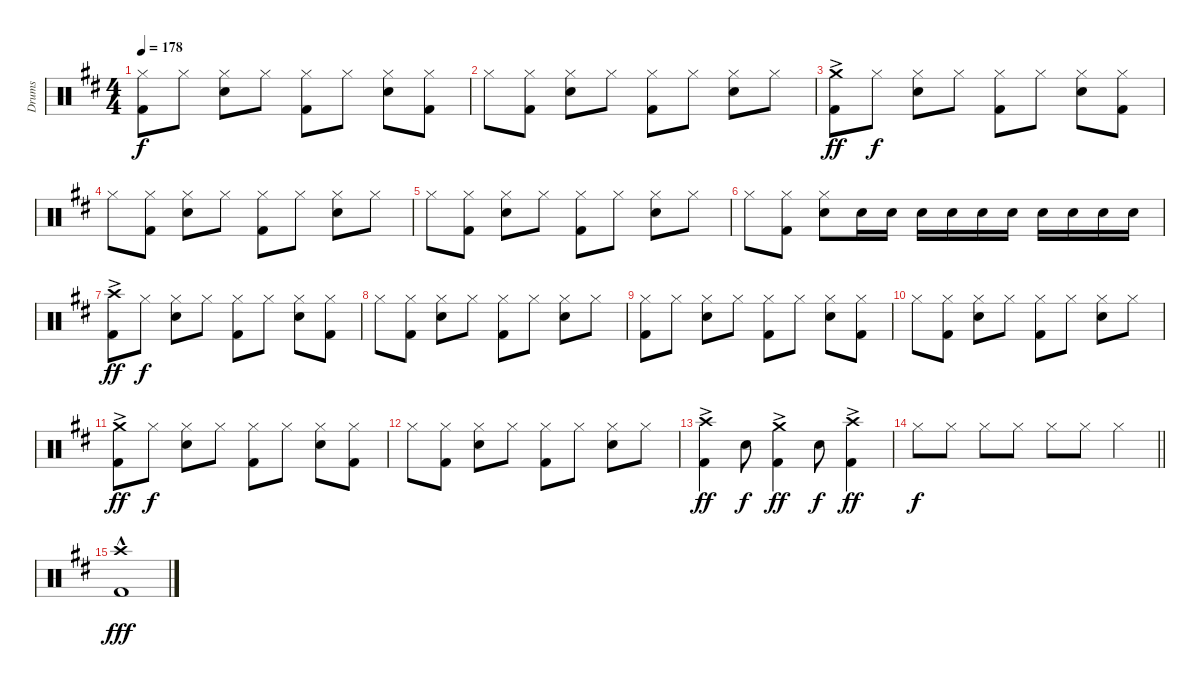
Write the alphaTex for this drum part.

\track ("Drums" "Drums") {instrument percussion}
\staff {score}
\articulation defaults
\ts (4 4)
\tempo 178
\clef neutral
\ks d
("Hi-Hat (closed)" "Kick (hit) 2").8{dy f} "Hi-Hat (closed)".8 ("Hi-Hat (closed)" "Electric Snare (hit)").8 "Hi-Hat (closed)".8 ("Hi-Hat (closed)" "Kick (hit) 2").8 "Hi-Hat (closed)".8 ("Hi-Hat (closed)" "Electric Snare (hit)").8 ("Hi-Hat (closed)" "Kick (hit) 2").8 |
"Hi-Hat (closed)".8 ("Hi-Hat (closed)" "Kick (hit) 2").8 ("Hi-Hat (closed)" "Electric Snare (hit)").8 "Hi-Hat (closed)".8 ("Hi-Hat (closed)" "Kick (hit) 2").8 "Hi-Hat (closed)".8 ("Hi-Hat (closed)" "Electric Snare (hit)").8 "Hi-Hat (closed)".8 |
("Crash medium (hit)"{ac} "Kick (hit) 2").8{dy ff} "Hi-Hat (closed)".8{dy f} ("Hi-Hat (closed)" "Electric Snare (hit)").8 "Hi-Hat (closed)".8 ("Hi-Hat (closed)" "Kick (hit) 2").8 "Hi-Hat (closed)".8 ("Hi-Hat (closed)" "Electric Snare (hit)").8 ("Hi-Hat (closed)" "Kick (hit) 2").8 |
"Hi-Hat (closed)".8 ("Hi-Hat (closed)" "Kick (hit) 2").8 ("Hi-Hat (closed)" "Electric Snare (hit)").8 "Hi-Hat (closed)".8 ("Hi-Hat (closed)" "Kick (hit) 2").8 "Hi-Hat (closed)".8 ("Hi-Hat (closed)" "Electric Snare (hit)").8 "Hi-Hat (closed)".8 |
"Hi-Hat (closed)".8 ("Hi-Hat (closed)" "Kick (hit) 2").8 ("Hi-Hat (closed)" "Electric Snare (hit)").8 "Hi-Hat (closed)".8 ("Hi-Hat (closed)" "Kick (hit) 2").8 "Hi-Hat (closed)".8 ("Hi-Hat (closed)" "Electric Snare (hit)").8 "Hi-Hat (closed)".8 |
"Hi-Hat (closed)".8 ("Hi-Hat (closed)" "Kick (hit) 2").8 ("Hi-Hat (closed)" "Electric Snare (hit)").8 "Electric Snare (hit)".16{volume 6} "Electric Snare (hit)".16{volume 16} "Electric Snare (hit)".16 "Electric Snare (hit)".16 "Electric Snare (hit)".16 "Electric Snare (hit)".16 "Electric Snare (hit)".16 "Electric Snare (hit)".16 "Electric Snare (hit)".16 "Electric Snare (hit)".16 |
("Crash high (hit)"{ac} "Kick (hit) 2").8{dy ff} "Hi-Hat (closed)".8{dy f} ("Hi-Hat (closed)" "Electric Snare (hit)").8 "Hi-Hat (closed)".8 ("Hi-Hat (closed)" "Kick (hit) 2").8 "Hi-Hat (closed)".8 ("Hi-Hat (closed)" "Electric Snare (hit)").8 ("Hi-Hat (closed)" "Kick (hit) 2").8 |
"Hi-Hat (closed)".8 ("Hi-Hat (closed)" "Kick (hit) 2").8 ("Hi-Hat (closed)" "Electric Snare (hit)").8 "Hi-Hat (closed)".8 ("Hi-Hat (closed)" "Kick (hit) 2").8 "Hi-Hat (closed)".8 ("Hi-Hat (closed)" "Electric Snare (hit)").8 "Hi-Hat (closed)".8 |
("Hi-Hat (closed)" "Kick (hit) 2").8 "Hi-Hat (closed)".8 ("Hi-Hat (closed)" "Electric Snare (hit)").8 "Hi-Hat (closed)".8 ("Hi-Hat (closed)" "Kick (hit) 2").8 "Hi-Hat (closed)".8 ("Hi-Hat (closed)" "Electric Snare (hit)").8 ("Hi-Hat (closed)" "Kick (hit) 2").8 |
"Hi-Hat (closed)".8 ("Hi-Hat (closed)" "Kick (hit) 2").8 ("Hi-Hat (closed)" "Electric Snare (hit)").8 "Hi-Hat (closed)".8 ("Hi-Hat (closed)" "Kick (hit) 2").8 "Hi-Hat (closed)".8 ("Hi-Hat (closed)" "Electric Snare (hit)").8 "Hi-Hat (closed)".8 |
("Crash medium (hit)"{ac} "Kick (hit) 2").8{dy ff} "Hi-Hat (closed)".8{dy f} ("Hi-Hat (closed)" "Electric Snare (hit)").8 "Hi-Hat (closed)".8 ("Hi-Hat (closed)" "Kick (hit) 2").8 "Hi-Hat (closed)".8 ("Hi-Hat (closed)" "Electric Snare (hit)").8 ("Hi-Hat (closed)" "Kick (hit) 2").8 |
"Hi-Hat (closed)".8 ("Hi-Hat (closed)" "Kick (hit) 2").8 ("Hi-Hat (closed)" "Electric Snare (hit)").8 "Hi-Hat (closed)".8 ("Hi-Hat (closed)" "Kick (hit) 2").8 "Hi-Hat (closed)".8 ("Hi-Hat (closed)" "Electric Snare (hit)").8 "Hi-Hat (closed)".8 |
("Crash high (hit)"{ac} "Kick (hit) 2").4{dy ff} "Electric Snare (hit)".8{dy f} ("Crash medium (hit)"{ac} "Kick (hit) 2").4{dy ff} "Electric Snare (hit)".8{dy f} ("Crash high (hit)"{ac} "Kick (hit) 2").4{dy ff} |
\barLineRight lightlight "Hi-Hat (closed)".8{dy f} "Hi-Hat (closed)".8 "Hi-Hat (closed)".8 "Hi-Hat (closed)".8 "Hi-Hat (closed)".8 "Hi-Hat (closed)".8 "Hi-Hat (closed)".4
|
("Crash high (hit)"{hac} "Kick (hit) 2"{hac}).1{dy fff}
